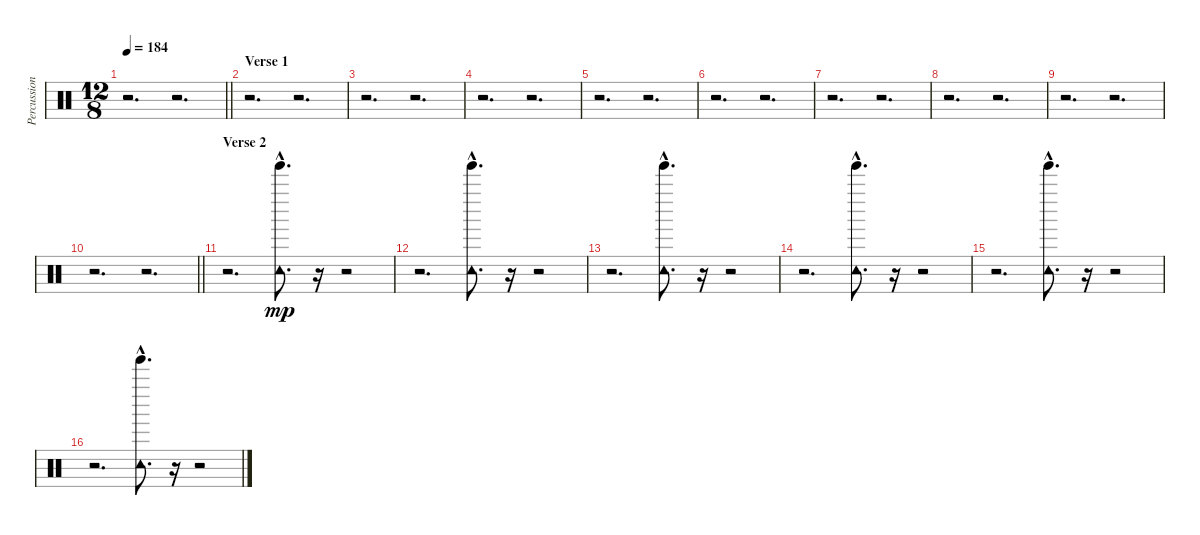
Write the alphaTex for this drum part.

\track ("Percussion" "Percussion") {instrument percussion}
\staff {score}
\articulation defaults
\ts (12 8)
\tempo 184
\clef neutral
\barLineRight lightlight
\ks c
r.2{d dy mp} r.2{d} |
\section ("" "Verse 1")
r.2{d} r.2{d} |
r.2{d} r.2{d} |
r.2{d} r.2{d} |
r.2{d} r.2{d} |
r.2{d} r.2{d} |
r.2{d} r.2{d} |
r.2{d} r.2{d} |
r.2{d} r.2{d} |
\barLineRight lightlight
r.2{d} r.2{d} |
\section ("" "Verse 2")
r.2{d} ("Tambourine (hit)"{hac} "Tinkle Bell (hit)"{hac}).8{d} r.16 r.2 |
r.2{d} ("Tambourine (hit)"{hac} "Tinkle Bell (hit)"{hac}).8{d} r.16 r.2 |
r.2{d} ("Tambourine (hit)"{hac} "Tinkle Bell (hit)"{hac}).8{d} r.16 r.2 |
r.2{d} ("Tambourine (hit)"{hac} "Tinkle Bell (hit)"{hac}).8{d} r.16 r.2 |
r.2{d} ("Tambourine (hit)"{hac} "Tinkle Bell (hit)"{hac}).8{d} r.16 r.2 |
r.2{d} ("Tambourine (hit)"{hac} "Tinkle Bell (hit)"{hac}).8{d} r.16 r.2
